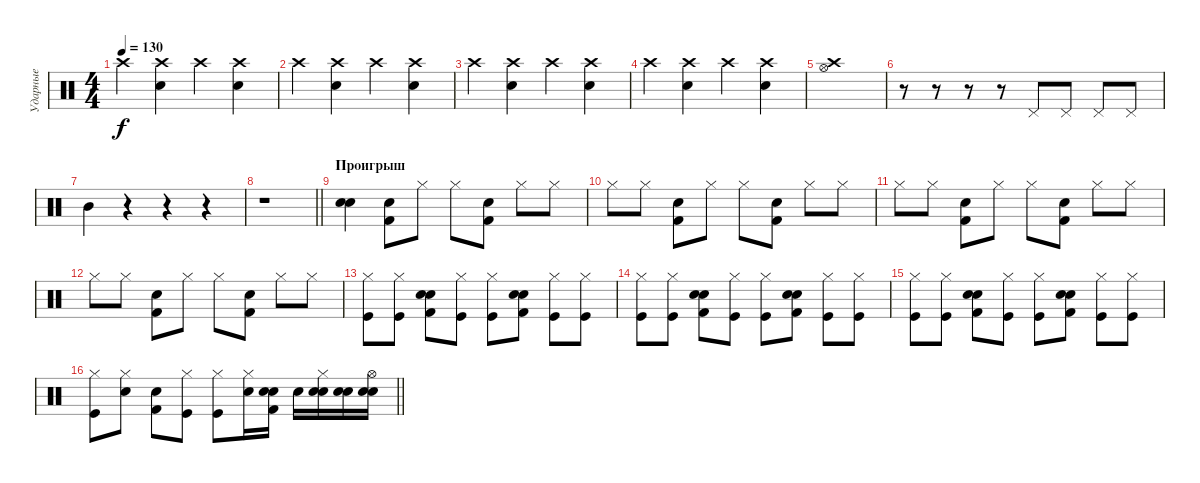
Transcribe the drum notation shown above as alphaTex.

\track ("Ударные" "Ударные") {instrument percussion}
\staff {score}
\articulation defaults
\ts (4 4)
\tempo 130
\clef neutral
\ks c "Crash high (hit)".4{dy f}
("Snare (hit) 2" "Crash high (hit)").4 "Crash high (hit)".4 ("Snare (hit) 2" "Crash high (hit)").4 |
"Crash high (hit)".4 ("Snare (hit) 2" "Crash high (hit)").4 "Crash high (hit)".4 ("Snare (hit) 2" "Crash high (hit)").4 |
"Crash high (hit)".4 ("Snare (hit) 2" "Crash high (hit)").4 "Crash high (hit)".4 ("Snare (hit) 2" "Crash high (hit)").4 |
"Crash high (hit)".4 ("Snare (hit) 2" "Crash high (hit)").4 "Crash high (hit)".4 ("Snare (hit) 2" "Crash high (hit)").4 |
("Crash high (hit)" "Hi-Hat (open)").1 |
r.8 r.8 r.8 r.8 "Pedal Hi-Hat (hit)".8 "Pedal Hi-Hat (hit)".8 "Pedal Hi-Hat (hit)".8 "Pedal Hi-Hat (hit)".8 |
"Mid Tom (hit)".4 r.4 r.4 r.4 |
\barLineRight lightlight
r.1 |
\section ("" "Проигрыш")
("Electric Snare (hit)" "Snare (hit) 2").4 ("Snare (hit) 2" "Kick (hit) 2").8 "Hi-Hat (closed)".8 "Hi-Hat (closed)".8 ("Snare (hit) 2" "Kick (hit) 2").8 "Hi-Hat (closed)".8 "Hi-Hat (closed)".8 |
"Hi-Hat (closed)".8 "Hi-Hat (closed)".8 ("Snare (hit) 2" "Kick (hit) 2").8 "Hi-Hat (closed)".8 "Hi-Hat (closed)".8 ("Snare (hit) 2" "Kick (hit) 2").8 "Hi-Hat (closed)".8 "Hi-Hat (closed)".8 |
"Hi-Hat (closed)".8 "Hi-Hat (closed)".8 ("Snare (hit) 2" "Kick (hit) 2").8 "Hi-Hat (closed)".8 "Hi-Hat (closed)".8 ("Snare (hit) 2" "Kick (hit) 2").8 "Hi-Hat (closed)".8 "Hi-Hat (closed)".8 |
"Hi-Hat (closed)".8 "Hi-Hat (closed)".8 ("Snare (hit) 2" "Kick (hit) 2").8 "Hi-Hat (closed)".8 "Hi-Hat (closed)".8 ("Snare (hit) 2" "Kick (hit) 2").8 "Hi-Hat (closed)".8 "Hi-Hat (closed)".8 |
("Hi-Hat (closed)" "Kick (hit)").8 ("Hi-Hat (closed)" "Kick (hit)").8 ("Snare (hit) 2" "Kick (hit) 2" "Electric Snare (hit)").8 ("Hi-Hat (closed)" "Kick (hit)").8 ("Hi-Hat (closed)" "Kick (hit)").8 ("Snare (hit) 2" "Kick (hit) 2" "Electric Snare (hit)").8 ("Hi-Hat (closed)" "Kick (hit)").8 ("Hi-Hat (closed)" "Kick (hit)").8 |
("Hi-Hat (closed)" "Kick (hit)").8 ("Hi-Hat (closed)" "Kick (hit)").8 ("Snare (hit) 2" "Kick (hit) 2" "Electric Snare (hit)").8 ("Hi-Hat (closed)" "Kick (hit)").8 ("Hi-Hat (closed)" "Kick (hit)").8 ("Snare (hit) 2" "Kick (hit) 2" "Electric Snare (hit)").8 ("Hi-Hat (closed)" "Kick (hit)").8 ("Hi-Hat (closed)" "Kick (hit)").8 |
("Hi-Hat (closed)" "Kick (hit)").8 ("Hi-Hat (closed)" "Kick (hit)").8 ("Snare (hit) 2" "Kick (hit) 2" "Electric Snare (hit)").8 ("Hi-Hat (closed)" "Kick (hit)").8 ("Hi-Hat (closed)" "Kick (hit)").8 ("Snare (hit) 2" "Kick (hit) 2" "Electric Snare (hit)").8 ("Hi-Hat (closed)" "Kick (hit)").8 ("Hi-Hat (closed)" "Kick (hit)").8 |
\barLineRight lightlight
("Hi-Hat (closed)" "Kick (hit)").8 ("Hi-Hat (closed)" "Electric Snare (hit)").8 ("Snare (hit) 2" "Kick (hit) 2").8 ("Hi-Hat (closed)" "Kick (hit)").8 ("Hi-Hat (closed)" "Kick (hit)").8 ("Snare (hit) 2" "Hi-Hat (closed)").16 ("Snare (hit) 2" "Kick (hit) 2" "Electric Snare (hit)").16 "Snare (hit) 2".16 ("Snare (hit) 2" "Hi-Hat (closed)" "Electric Snare (hit)").16 ("Snare (hit) 2" "Electric Snare (hit)").16 ("Snare (hit) 2" "Electric Snare (hit)" "Hi-Hat (open)").16
